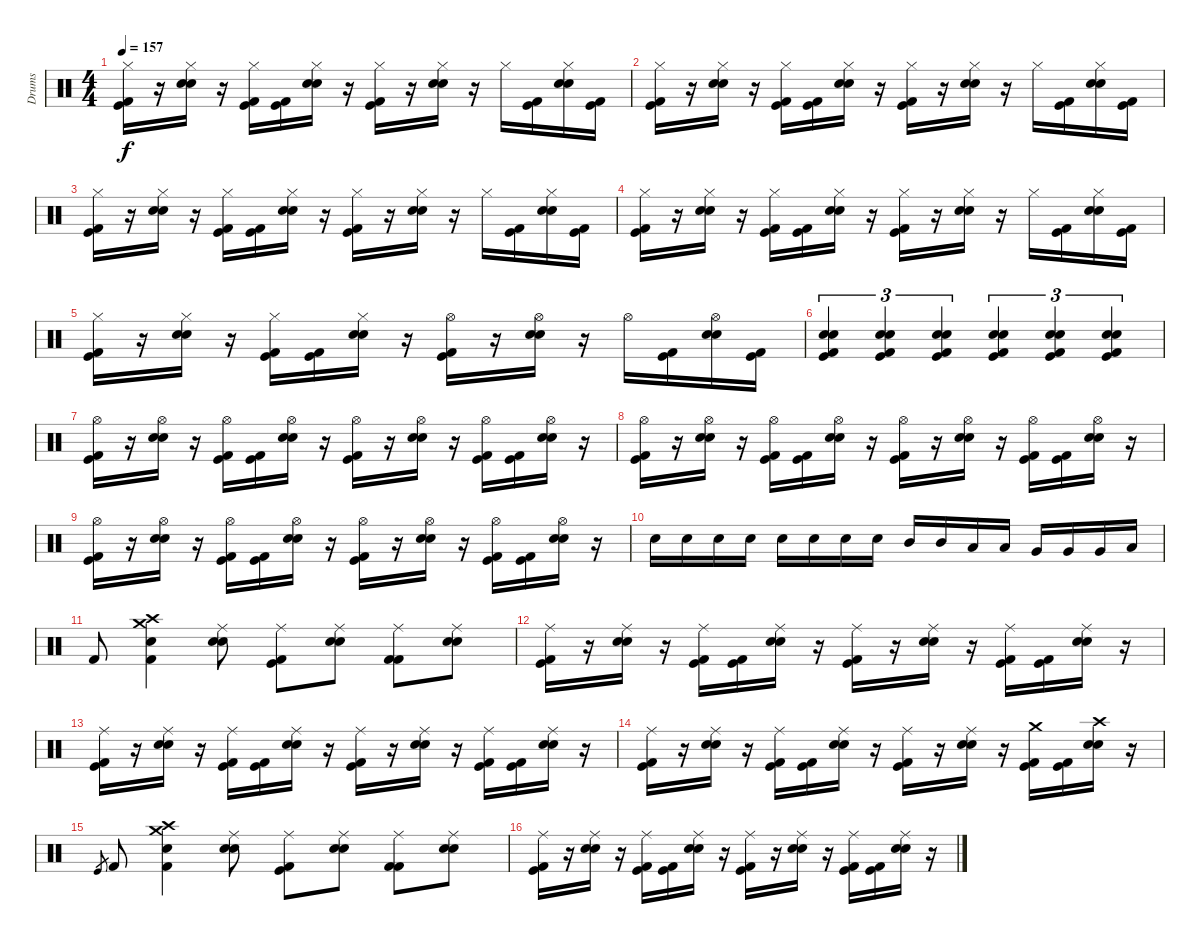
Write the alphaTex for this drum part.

\track ("Drums" "Drums") {instrument percussion}
\staff {score}
\articulation defaults
\ts (4 4)
\tempo 157
\clef neutral
\ks c
("Hi-Hat (closed)" "Kick (hit) 2" "Kick (hit)").16{dy f} r.16 ("Hi-Hat (closed)" "Electric Snare (hit)" "Snare (hit) 2").16 r.16 ("Hi-Hat (closed)" "Kick (hit) 2" "Kick (hit)").16 ("Kick (hit) 2" "Kick (hit)").16 ("Hi-Hat (closed)" "Electric Snare (hit)" "Snare (hit) 2").16 r.16 ("Hi-Hat (closed)" "Kick (hit) 2" "Kick (hit)").16 r.16 ("Hi-Hat (closed)" "Electric Snare (hit)" "Snare (hit) 2").16 r.16 "Hi-Hat (closed)".16 ("Kick (hit) 2" "Kick (hit)").16 ("Hi-Hat (closed)" "Electric Snare (hit)" "Snare (hit) 2").16 ("Kick (hit) 2" "Kick (hit)").16 |
("Hi-Hat (closed)" "Kick (hit) 2" "Kick (hit)").16 r.16 ("Hi-Hat (closed)" "Electric Snare (hit)" "Snare (hit) 2").16 r.16 ("Hi-Hat (closed)" "Kick (hit) 2" "Kick (hit)").16 ("Kick (hit) 2" "Kick (hit)").16 ("Hi-Hat (closed)" "Electric Snare (hit)" "Snare (hit) 2").16 r.16 ("Hi-Hat (closed)" "Kick (hit) 2" "Kick (hit)").16 r.16 ("Hi-Hat (closed)" "Electric Snare (hit)" "Snare (hit) 2").16 r.16 "Hi-Hat (closed)".16 ("Kick (hit) 2" "Kick (hit)").16 ("Hi-Hat (closed)" "Electric Snare (hit)" "Snare (hit) 2").16 ("Kick (hit) 2" "Kick (hit)").16 |
("Hi-Hat (closed)" "Kick (hit) 2" "Kick (hit)").16 r.16 ("Hi-Hat (closed)" "Electric Snare (hit)" "Snare (hit) 2").16 r.16 ("Hi-Hat (closed)" "Kick (hit) 2" "Kick (hit)").16 ("Kick (hit) 2" "Kick (hit)").16 ("Hi-Hat (closed)" "Electric Snare (hit)" "Snare (hit) 2").16 r.16 ("Hi-Hat (closed)" "Kick (hit) 2" "Kick (hit)").16 r.16 ("Hi-Hat (closed)" "Electric Snare (hit)" "Snare (hit) 2").16 r.16 "Hi-Hat (closed)".16 ("Kick (hit) 2" "Kick (hit)").16 ("Hi-Hat (closed)" "Electric Snare (hit)" "Snare (hit) 2").16 ("Kick (hit) 2" "Kick (hit)").16 |
("Hi-Hat (closed)" "Kick (hit) 2" "Kick (hit)").16 r.16 ("Hi-Hat (closed)" "Electric Snare (hit)" "Snare (hit) 2").16 r.16 ("Hi-Hat (closed)" "Kick (hit) 2" "Kick (hit)").16 ("Kick (hit) 2" "Kick (hit)").16 ("Hi-Hat (closed)" "Electric Snare (hit)" "Snare (hit) 2").16 r.16 ("Hi-Hat (closed)" "Kick (hit) 2" "Kick (hit)").16 r.16 ("Hi-Hat (closed)" "Electric Snare (hit)" "Snare (hit) 2").16 r.16 "Hi-Hat (closed)".16 ("Kick (hit) 2" "Kick (hit)").16 ("Hi-Hat (closed)" "Electric Snare (hit)" "Snare (hit) 2").16 ("Kick (hit) 2" "Kick (hit)").16 |
("Hi-Hat (closed)" "Kick (hit) 2" "Kick (hit)").16 r.16 ("Hi-Hat (closed)" "Electric Snare (hit)" "Snare (hit) 2").16 r.16 ("Hi-Hat (closed)" "Kick (hit) 2" "Kick (hit)").16 ("Kick (hit) 2" "Kick (hit)").16 ("Hi-Hat (closed)" "Electric Snare (hit)" "Snare (hit) 2").16 r.16 ("Hi-Hat (open)" "Kick (hit) 2" "Kick (hit)").16 r.16 ("Hi-Hat (open)" "Electric Snare (hit)" "Snare (hit) 2").16 r.16 "Hi-Hat (open)".16 ("Kick (hit) 2" "Kick (hit)").16 ("Hi-Hat (open)" "Electric Snare (hit)" "Snare (hit) 2").16 ("Kick (hit) 2" "Kick (hit)").16 |
("Snare (hit) 2" "Electric Snare (hit)" "Kick (hit)" "Kick (hit) 2").4{tu (3 2)} ("Snare (hit) 2" "Electric Snare (hit)" "Kick (hit)" "Kick (hit) 2").4{tu (3 2)} ("Snare (hit) 2" "Electric Snare (hit)" "Kick (hit)" "Kick (hit) 2").4{tu (3 2)} ("Snare (hit) 2" "Electric Snare (hit)" "Kick (hit)" "Kick (hit) 2").4{tu (3 2)} ("Snare (hit) 2" "Electric Snare (hit)" "Kick (hit)" "Kick (hit) 2").4{tu (3 2)} ("Snare (hit) 2" "Electric Snare (hit)" "Kick (hit)" "Kick (hit) 2").4{tu (3 2)} |
("Hi-Hat (open)" "Kick (hit)" "Kick (hit) 2").16 r.16 ("Hi-Hat (open)" "Snare (hit) 2" "Electric Snare (hit)").16 r.16 ("Hi-Hat (open)" "Kick (hit)" "Kick (hit) 2").16 ("Kick (hit)" "Kick (hit) 2").16 ("Hi-Hat (open)" "Snare (hit) 2" "Electric Snare (hit)").16 r.16 ("Hi-Hat (open)" "Kick (hit)" "Kick (hit) 2").16 r.16 ("Hi-Hat (open)" "Snare (hit) 2" "Electric Snare (hit)").16 r.16 ("Hi-Hat (open)" "Kick (hit)" "Kick (hit) 2").16 ("Kick (hit)" "Kick (hit) 2").16 ("Hi-Hat (open)" "Snare (hit) 2" "Electric Snare (hit)").16 r.16 |
("Hi-Hat (open)" "Kick (hit)" "Kick (hit) 2").16 r.16 ("Hi-Hat (open)" "Snare (hit) 2" "Electric Snare (hit)").16 r.16 ("Hi-Hat (open)" "Kick (hit)" "Kick (hit) 2").16 ("Kick (hit)" "Kick (hit) 2").16 ("Hi-Hat (open)" "Snare (hit) 2" "Electric Snare (hit)").16 r.16 ("Hi-Hat (open)" "Kick (hit)" "Kick (hit) 2").16 r.16 ("Hi-Hat (open)" "Snare (hit) 2" "Electric Snare (hit)").16 r.16 ("Hi-Hat (open)" "Kick (hit)" "Kick (hit) 2").16 ("Kick (hit)" "Kick (hit) 2").16 ("Hi-Hat (open)" "Snare (hit) 2" "Electric Snare (hit)").16 r.16 |
("Hi-Hat (open)" "Kick (hit)" "Kick (hit) 2").16 r.16 ("Hi-Hat (open)" "Snare (hit) 2" "Electric Snare (hit)").16 r.16 ("Hi-Hat (open)" "Kick (hit)" "Kick (hit) 2").16 ("Kick (hit)" "Kick (hit) 2").16 ("Hi-Hat (open)" "Snare (hit) 2" "Electric Snare (hit)").16 r.16 ("Hi-Hat (open)" "Kick (hit)" "Kick (hit) 2").16 r.16 ("Hi-Hat (open)" "Snare (hit) 2" "Electric Snare (hit)").16 r.16 ("Hi-Hat (open)" "Kick (hit)" "Kick (hit) 2").16 ("Kick (hit)" "Kick (hit) 2").16 ("Hi-Hat (open)" "Snare (hit) 2" "Electric Snare (hit)").16 r.16 |
"Electric Snare (hit)".16 "Electric Snare (hit)".16 "Electric Snare (hit)".16 "Electric Snare (hit)".16 "Electric Snare (hit)".16 "Electric Snare (hit)".16 "Electric Snare (hit)".16 "Electric Snare (hit)".16 "Mid Tom (hit)".16 "Mid Tom (hit)".16 "Low Tom (hit)".16 "Low Tom (hit)".16 "Very Low Tom (hit)".16 "Very Low Tom (hit)".16 "Very Low Tom (hit)".16 "Low Floor Tom (hit)".16 |
"Kick (hit) 2".8 ("Crash high (hit)" "Crash medium (hit)" "Electric Snare (hit)" "Kick (hit) 2").4 ("Ride (middle)" "Snare (hit) 2" "Electric Snare (hit)").8 ("Ride (middle)" "Kick (hit) 2" "Kick (hit)").8 ("Ride (middle)" "Snare (hit) 2" "Electric Snare (hit)").8 ("Ride (middle)" "Kick (hit) 2" "Kick (hit) 2").8 ("Ride (middle)" "Snare (hit) 2" "Electric Snare (hit)").8 |
("Ride (middle)" "Kick (hit) 2" "Kick (hit)").16 r.16 ("Ride (middle)" "Electric Snare (hit)" "Snare (hit) 2").16 r.16 ("Ride (middle)" "Kick (hit) 2" "Kick (hit)").16 ("Kick (hit) 2" "Kick (hit)").16 ("Ride (middle)" "Electric Snare (hit)" "Snare (hit) 2").16 r.16 ("Ride (middle)" "Kick (hit) 2" "Kick (hit)").16 r.16 ("Ride (middle)" "Electric Snare (hit)" "Snare (hit) 2").16 r.16 ("Ride (middle)" "Kick (hit) 2" "Kick (hit)").16 ("Kick (hit) 2" "Kick (hit)").16 ("Ride (middle)" "Electric Snare (hit)" "Snare (hit) 2").16 r.16 |
("Ride (middle)" "Kick (hit) 2" "Kick (hit)").16 r.16 ("Ride (middle)" "Electric Snare (hit)" "Snare (hit) 2").16 r.16 ("Ride (middle)" "Kick (hit) 2" "Kick (hit)").16 ("Kick (hit) 2" "Kick (hit)").16 ("Ride (middle)" "Electric Snare (hit)" "Snare (hit) 2").16 r.16 ("Ride (middle)" "Kick (hit) 2" "Kick (hit)").16 r.16 ("Ride (middle)" "Electric Snare (hit)" "Snare (hit) 2").16 r.16 ("Ride (middle)" "Kick (hit) 2" "Kick (hit)").16 ("Kick (hit) 2" "Kick (hit)").16 ("Ride (middle)" "Electric Snare (hit)" "Snare (hit) 2").16 r.16 |
("Ride (middle)" "Kick (hit) 2" "Kick (hit)").16 r.16 ("Ride (middle)" "Electric Snare (hit)" "Snare (hit) 2").16 r.16 ("Ride (middle)" "Kick (hit) 2" "Kick (hit)").16 ("Kick (hit) 2" "Kick (hit)").16 ("Ride (middle)" "Electric Snare (hit)" "Snare (hit) 2").16 r.16 ("Ride (middle)" "Kick (hit) 2" "Kick (hit)").16 r.16 ("Ride (middle)" "Electric Snare (hit)" "Snare (hit) 2").16 r.16 ("Crash medium (hit)" "Kick (hit) 2" "Kick (hit)").16 ("Kick (hit) 2" "Kick (hit)").16 ("Crash high (hit)" "Electric Snare (hit)" "Snare (hit) 2").16 r.16 |
"Kick (hit)".8{gr} "Kick (hit) 2".8 ("Crash high (hit)" "Crash medium (hit)" "Electric Snare (hit)" "Kick (hit) 2").4 ("Ride (middle)" "Snare (hit) 2" "Electric Snare (hit)").8 ("Ride (middle)" "Kick (hit) 2" "Kick (hit)").8 ("Ride (middle)" "Snare (hit) 2" "Electric Snare (hit)").8 ("Ride (middle)" "Kick (hit) 2" "Kick (hit) 2").8 ("Ride (middle)" "Snare (hit) 2" "Electric Snare (hit)").8 |
("Ride (middle)" "Kick (hit) 2" "Kick (hit)").16 r.16 ("Ride (middle)" "Electric Snare (hit)" "Snare (hit) 2").16 r.16 ("Ride (middle)" "Kick (hit) 2" "Kick (hit)").16 ("Kick (hit) 2" "Kick (hit)").16 ("Ride (middle)" "Electric Snare (hit)" "Snare (hit) 2").16 r.16 ("Ride (middle)" "Kick (hit) 2" "Kick (hit)").16 r.16 ("Ride (middle)" "Electric Snare (hit)" "Snare (hit) 2").16 r.16 ("Ride (middle)" "Kick (hit) 2" "Kick (hit)").16 ("Kick (hit) 2" "Kick (hit)").16 ("Ride (middle)" "Electric Snare (hit)" "Snare (hit) 2").16 r.16
